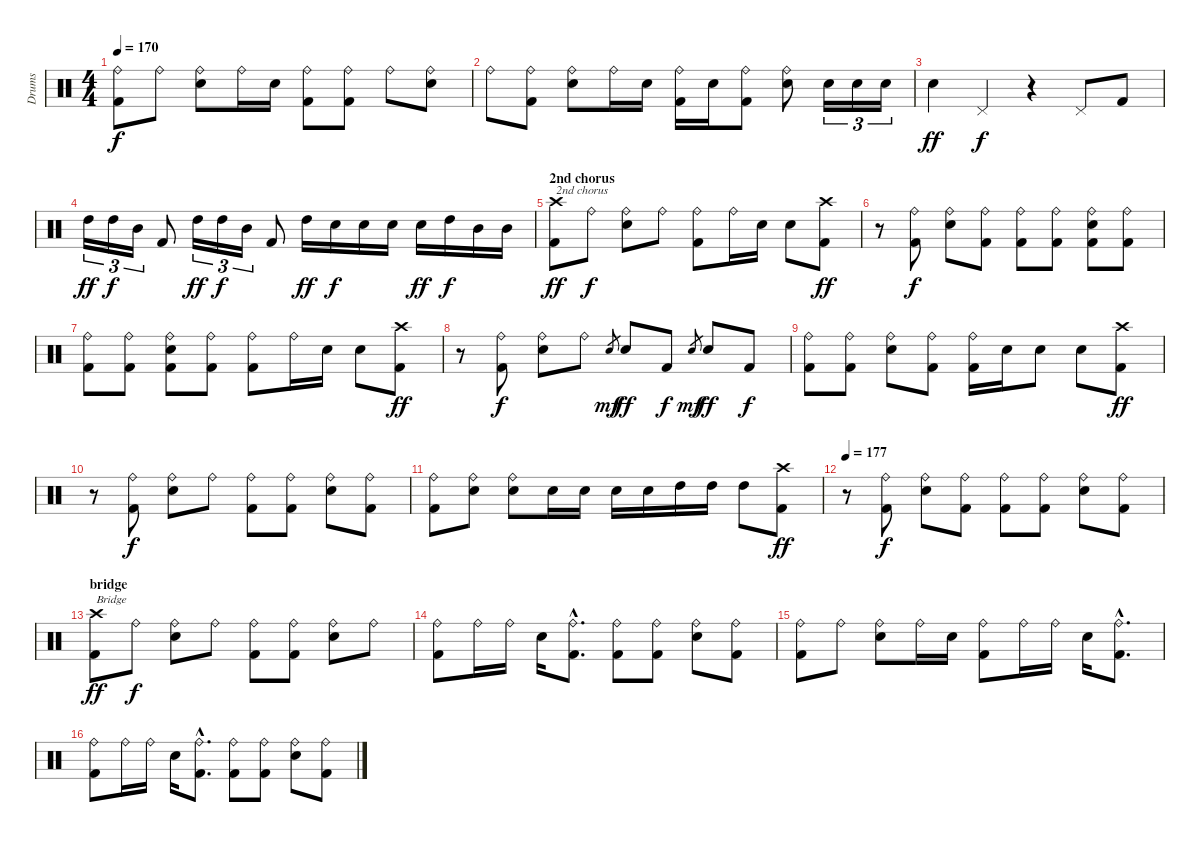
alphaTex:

\track ("Drums" "Drums") {instrument percussion}
\staff {score}
\articulation defaults
\ts (4 4)
\tempo 170
\clef neutral
\ks c
("Ride (bell)" "Kick (hit) 2").8{dy f} "Ride (bell)".8 ("Ride (bell)" "Electric Snare (hit)").8 "Ride (bell)".16 "Electric Snare (hit)".16 ("Ride (bell)" "Kick (hit) 2").8 ("Ride (bell)" "Kick (hit) 2").8 "Ride (bell)".8 ("Ride (bell)" "Electric Snare (hit)").8 |
"Ride (bell)".8 ("Ride (bell)" "Kick (hit) 2").8 ("Ride (bell)" "Electric Snare (hit)").8 "Ride (bell)".16 "Electric Snare (hit)".16 ("Ride (bell)" "Kick (hit) 2").16 "Electric Snare (hit)".16 ("Ride (bell)" "Kick (hit) 2").8 ("Ride (bell)" "Electric Snare (hit)").8 "Electric Snare (hit)".16{tu (3 2)} "Electric Snare (hit)".16{tu (3 2)} "Electric Snare (hit)".16{tu (3 2)} |
"Electric Snare (hit)".4{dy ff} "Pedal Hi-Hat (hit)".4{dy f} r.4 "Pedal Hi-Hat (hit)".8 "Kick (hit) 2".8 |
"High Tom (hit)".16{tu (3 2) dy ff} "High Tom (hit)".16{tu (3 2) dy f} "Mid Tom (hit)".16{tu (3 2)} "Kick (hit) 2".8 "High Tom (hit)".16{tu (3 2) dy ff} "High Tom (hit)".16{tu (3 2) dy f} "Mid Tom (hit)".16{tu (3 2)} "Kick (hit) 2".8 "High Tom (hit)".16{dy ff} "Electric Snare (hit)".16{dy f} "Electric Snare (hit)".16 "Electric Snare (hit)".16 "Electric Snare (hit)".16{dy ff} "High Tom (hit)".16{dy f} "Mid Tom (hit)".16 "Mid Tom (hit)".16 |
\section ("" "2nd chorus")
("Crash high (hit)" "Kick (hit) 2").8{txt "2nd chorus" dy ff} "Ride (bell)".8{dy f} ("Ride (bell)" "Electric Snare (hit)").8 "Ride (bell)".8 ("Ride (bell)" "Kick (hit) 2").8 "Ride (bell)".16 "Electric Snare (hit)".16 "Electric Snare (hit)".8 ("Crash high (hit)" "Kick (hit) 2").8{dy ff} |
r.8 ("Ride (bell)" "Kick (hit) 2").8{dy f} ("Ride (bell)" "Electric Snare (hit)").8 ("Ride (bell)" "Kick (hit) 2").8 ("Ride (bell)" "Kick (hit) 2").8 ("Ride (bell)" "Kick (hit) 2").8 ("Ride (bell)" "Electric Snare (hit)" "Kick (hit) 2").8 ("Ride (bell)" "Kick (hit) 2").8 |
("Ride (bell)" "Kick (hit) 2").8 ("Ride (bell)" "Kick (hit) 2").8 ("Ride (bell)" "Electric Snare (hit)" "Kick (hit) 2").8 ("Ride (bell)" "Kick (hit) 2").8 ("Ride (bell)" "Kick (hit) 2").8 "Ride (bell)".16 "Electric Snare (hit)".16 "Electric Snare (hit)".8 ("Crash high (hit)" "Kick (hit) 2").8{dy ff} |
r.8 ("Ride (bell)" "Kick (hit) 2").8{dy f} ("Ride (bell)" "Electric Snare (hit)").8 "Ride (bell)".8 "Electric Snare (hit)".8{gr dy mf} "Electric Snare (hit)".8{dy ff} "Kick (hit) 2".8{dy f} "Electric Snare (hit)".8{gr dy mf} "Electric Snare (hit)".8{dy ff} "Kick (hit) 2".8{dy f} |
("Ride (bell)" "Kick (hit) 2").8 ("Ride (bell)" "Kick (hit) 2").8 ("Ride (bell)" "Electric Snare (hit)").8 ("Ride (bell)" "Kick (hit) 2").8 ("Ride (bell)" "Kick (hit) 2").16 "Electric Snare (hit)".16 "Electric Snare (hit)".8 "Electric Snare (hit)".8 ("Crash high (hit)" "Kick (hit) 2").8{dy ff} |
r.8 ("Ride (bell)" "Kick (hit) 2").8{dy f} ("Ride (bell)" "Electric Snare (hit)").8 "Ride (bell)".8 ("Ride (bell)" "Kick (hit) 2").8 ("Ride (bell)" "Kick (hit) 2").8 ("Ride (bell)" "Electric Snare (hit)").8 ("Ride (bell)" "Kick (hit) 2").8 |
("Ride (bell)" "Kick (hit) 2").8 ("Ride (bell)" "Electric Snare (hit)").8 ("Ride (bell)" "Electric Snare (hit)").8 "Electric Snare (hit)".16 "Electric Snare (hit)".16 "Electric Snare (hit)".16 "Electric Snare (hit)".16 "High Tom (hit)".16 "High Tom (hit)".16 "High Tom (hit)".8 ("Crash high (hit)" "Kick (hit) 2").8{dy ff} |
\tempo 177
r.8 ("Ride (bell)" "Kick (hit) 2").8{dy f} ("Ride (bell)" "Electric Snare (hit)").8 ("Ride (bell)" "Kick (hit) 2").8 ("Ride (bell)" "Kick (hit) 2").8 ("Ride (bell)" "Kick (hit) 2").8 ("Ride (bell)" "Electric Snare (hit)").8 ("Ride (bell)" "Kick (hit) 2").8 |
\section ("" "bridge")
("Crash high (hit)" "Kick (hit) 2").8{txt "Bridge" dy ff} "Ride (bell)".8{dy f} ("Ride (bell)" "Electric Snare (hit)").8 "Ride (bell)".8 ("Ride (bell)" "Kick (hit) 2").8 ("Ride (bell)" "Kick (hit) 2").8 ("Ride (bell)" "Electric Snare (hit)").8 "Ride (bell)".8 |
("Ride (bell)" "Kick (hit) 2").8 "Ride (bell)".16 "Ride (bell)".16 "Electric Snare (hit)".16 ("Ride (bell)"{hac} "Kick (hit) 2"{hac}).8{d} ("Ride (bell)" "Kick (hit) 2").8 ("Ride (bell)" "Kick (hit) 2").8 ("Ride (bell)" "Electric Snare (hit)").8 ("Ride (bell)" "Kick (hit) 2").8 |
("Ride (bell)" "Kick (hit) 2").8 "Ride (bell)".8 ("Ride (bell)" "Electric Snare (hit)").8 "Ride (bell)".16 "Electric Snare (hit)".16 ("Ride (bell)" "Kick (hit) 2").8 "Ride (bell)".16 "Ride (bell)".16 "Electric Snare (hit)".16 ("Ride (bell)"{hac} "Kick (hit) 2"{hac}).8{d} |
("Ride (bell)" "Kick (hit) 2").8 "Ride (bell)".16 "Ride (bell)".16 "Electric Snare (hit)".16 ("Ride (bell)"{hac} "Kick (hit) 2"{hac}).8{d} ("Ride (bell)" "Kick (hit) 2").8 ("Ride (bell)" "Kick (hit) 2").8 ("Ride (bell)" "Electric Snare (hit)").8 ("Ride (bell)" "Kick (hit) 2").8
